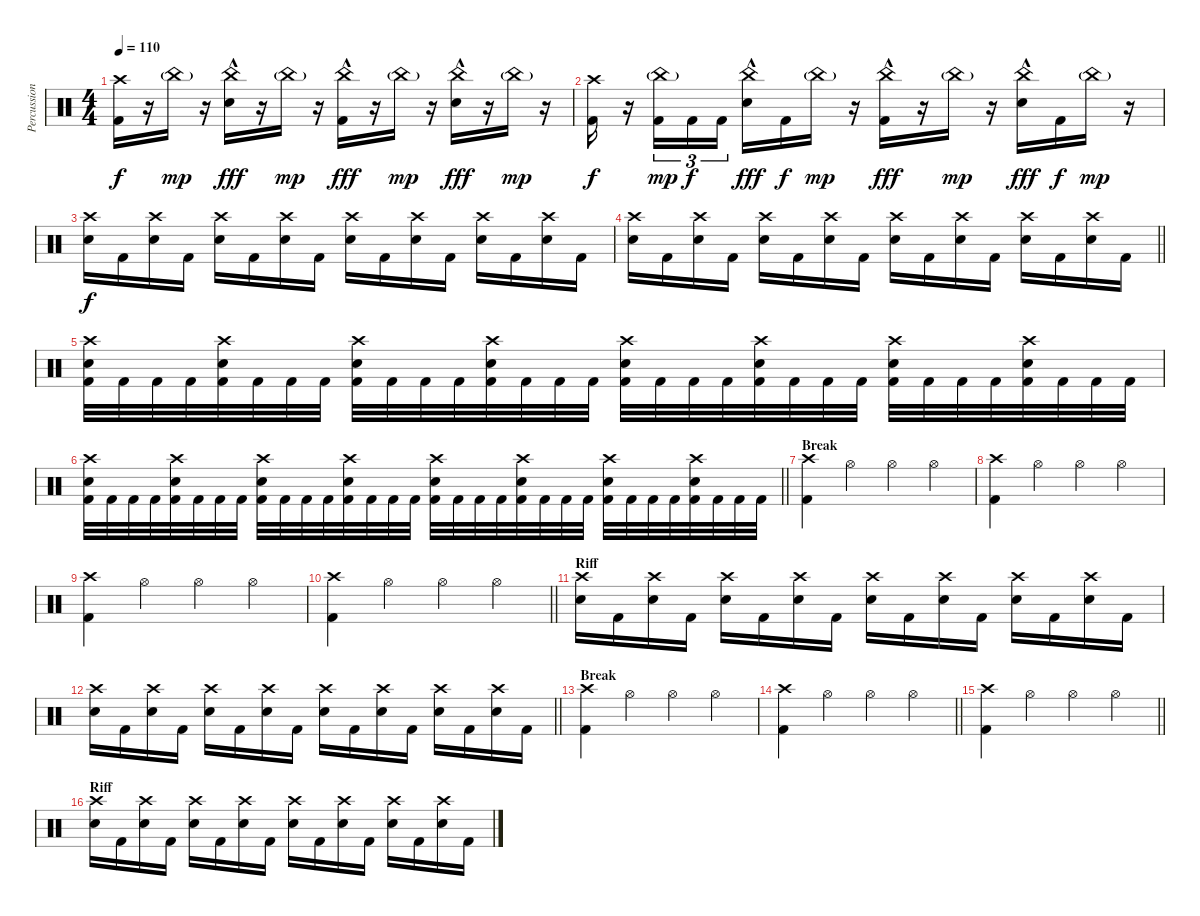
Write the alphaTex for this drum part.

\track ("Percussion" "Percussion") {instrument percussion}
\staff {score}
\articulation defaults
\ts (4 4)
\tempo 110
\clef neutral
\ks c
("Crash high (hit)" "Kick (hit) 2").16{dy f} r.16 "China (hit)"{g}.16{dy mp} r.16 ("China (hit)"{hac} "Snare (hit) 2").16{dy fff} r.16 "China (hit)"{g}.16{dy mp} r.16 ("China (hit)"{hac} "Kick (hit) 2").16{dy fff} r.16 "China (hit)"{g}.16{dy mp} r.16 ("China (hit)"{hac} "Snare (hit) 2").16{dy fff} r.16 "China (hit)"{g}.16{dy mp} r.16 |
("Crash high (hit)" "Kick (hit) 2").16{dy f} r.16 ("China (hit)"{g} "Kick (hit) 2").16{tu (3 2) dy mp} "Kick (hit) 2".16{tu (3 2) dy f} "Kick (hit) 2".16{tu (3 2)} ("China (hit)"{hac} "Snare (hit) 2").16{dy fff} "Kick (hit) 2".16{dy f} "China (hit)"{g}.16{dy mp} r.16 ("China (hit)"{hac} "Kick (hit) 2").16{dy fff} r.16 "China (hit)"{g}.16{dy mp} r.16 ("China (hit)"{hac} "Snare (hit) 2").16{dy fff} "Kick (hit) 2".16{dy f} "China (hit)"{g}.16{dy mp} r.16 |
("Crash high (hit)" "Snare (hit) 2").16{dy f} "Kick (hit) 2".16 ("Crash high (hit)" "Snare (hit) 2").16 "Kick (hit) 2".16 ("Crash high (hit)" "Snare (hit) 2").16 "Kick (hit) 2".16 ("Crash high (hit)" "Snare (hit) 2").16 "Kick (hit) 2".16 ("Crash high (hit)" "Snare (hit) 2").16 "Kick (hit) 2".16 ("Crash high (hit)" "Snare (hit) 2").16 "Kick (hit) 2".16 ("Crash high (hit)" "Snare (hit) 2").16 "Kick (hit) 2".16 ("Crash high (hit)" "Snare (hit) 2").16 "Kick (hit) 2".16 |
\barLineRight lightlight
("Crash high (hit)" "Snare (hit) 2").16 "Kick (hit) 2".16 ("Crash high (hit)" "Snare (hit) 2").16 "Kick (hit) 2".16 ("Crash high (hit)" "Snare (hit) 2").16 "Kick (hit) 2".16 ("Crash high (hit)" "Snare (hit) 2").16 "Kick (hit) 2".16 ("Crash high (hit)" "Snare (hit) 2").16 "Kick (hit) 2".16 ("Crash high (hit)" "Snare (hit) 2").16 "Kick (hit) 2".16 ("Crash high (hit)" "Snare (hit) 2").16 "Kick (hit) 2".16 ("Crash high (hit)" "Snare (hit) 2").16 "Kick (hit) 2".16 |
("Crash high (hit)" "Snare (hit) 2" "Kick (hit) 2").32 "Kick (hit) 2".32 "Kick (hit) 2".32 "Kick (hit) 2".32 ("Crash high (hit)" "Snare (hit) 2" "Kick (hit) 2").32 "Kick (hit) 2".32 "Kick (hit) 2".32 "Kick (hit) 2".32 ("Crash high (hit)" "Snare (hit) 2" "Kick (hit) 2").32 "Kick (hit) 2".32 "Kick (hit) 2".32 "Kick (hit) 2".32 ("Crash high (hit)" "Snare (hit) 2" "Kick (hit) 2").32 "Kick (hit) 2".32 "Kick (hit) 2".32 "Kick (hit) 2".32 ("Crash high (hit)" "Snare (hit) 2" "Kick (hit) 2").32 "Kick (hit) 2".32 "Kick (hit) 2".32 "Kick (hit) 2".32 ("Crash high (hit)" "Snare (hit) 2" "Kick (hit) 2").32 "Kick (hit) 2".32 "Kick (hit) 2".32 "Kick (hit) 2".32 ("Crash high (hit)" "Snare (hit) 2" "Kick (hit) 2").32 "Kick (hit) 2".32 "Kick (hit) 2".32 "Kick (hit) 2".32 ("Crash high (hit)" "Snare (hit) 2" "Kick (hit) 2").32 "Kick (hit) 2".32 "Kick (hit) 2".32 "Kick (hit) 2".32 |
\barLineRight lightlight
("Crash high (hit)" "Snare (hit) 2" "Kick (hit) 2").32 "Kick (hit) 2".32 "Kick (hit) 2".32 "Kick (hit) 2".32 ("Crash high (hit)" "Snare (hit) 2" "Kick (hit) 2").32 "Kick (hit) 2".32 "Kick (hit) 2".32 "Kick (hit) 2".32 ("Crash high (hit)" "Snare (hit) 2" "Kick (hit) 2").32 "Kick (hit) 2".32 "Kick (hit) 2".32 "Kick (hit) 2".32 ("Crash high (hit)" "Snare (hit) 2" "Kick (hit) 2").32 "Kick (hit) 2".32 "Kick (hit) 2".32 "Kick (hit) 2".32 ("Crash high (hit)" "Snare (hit) 2" "Kick (hit) 2").32 "Kick (hit) 2".32 "Kick (hit) 2".32 "Kick (hit) 2".32 ("Crash high (hit)" "Snare (hit) 2" "Kick (hit) 2").32 "Kick (hit) 2".32 "Kick (hit) 2".32 "Kick (hit) 2".32 ("Crash high (hit)" "Snare (hit) 2" "Kick (hit) 2").32 "Kick (hit) 2".32 "Kick (hit) 2".32 "Kick (hit) 2".32 ("Crash high (hit)" "Snare (hit) 2" "Kick (hit) 2").32 "Kick (hit) 2".32 "Kick (hit) 2".32 "Kick (hit) 2".32 |
\section ("" "Break")
("Crash high (hit)" "Kick (hit) 2").4 "Hi-Hat (open)".4 "Hi-Hat (open)".4 "Hi-Hat (open)".4 |
("Crash high (hit)" "Kick (hit) 2").4 "Hi-Hat (open)".4 "Hi-Hat (open)".4 "Hi-Hat (open)".4 |
("Crash high (hit)" "Kick (hit) 2").4 "Hi-Hat (open)".4 "Hi-Hat (open)".4 "Hi-Hat (open)".4 |
\barLineRight lightlight
("Crash high (hit)" "Kick (hit) 2").4 "Hi-Hat (open)".4 "Hi-Hat (open)".4 "Hi-Hat (open)".4 |
\section ("" "Riff")
("Crash high (hit)" "Snare (hit) 2").16 "Kick (hit) 2".16 ("Crash high (hit)" "Snare (hit) 2").16 "Kick (hit) 2".16 ("Crash high (hit)" "Snare (hit) 2").16 "Kick (hit) 2".16 ("Crash high (hit)" "Snare (hit) 2").16 "Kick (hit) 2".16 ("Crash high (hit)" "Snare (hit) 2").16 "Kick (hit) 2".16 ("Crash high (hit)" "Snare (hit) 2").16 "Kick (hit) 2".16 ("Crash high (hit)" "Snare (hit) 2").16 "Kick (hit) 2".16 ("Crash high (hit)" "Snare (hit) 2").16 "Kick (hit) 2".16 |
\barLineRight lightlight
("Crash high (hit)" "Snare (hit) 2").16 "Kick (hit) 2".16 ("Crash high (hit)" "Snare (hit) 2").16 "Kick (hit) 2".16 ("Crash high (hit)" "Snare (hit) 2").16 "Kick (hit) 2".16 ("Crash high (hit)" "Snare (hit) 2").16 "Kick (hit) 2".16 ("Crash high (hit)" "Snare (hit) 2").16 "Kick (hit) 2".16 ("Crash high (hit)" "Snare (hit) 2").16 "Kick (hit) 2".16 ("Crash high (hit)" "Snare (hit) 2").16 "Kick (hit) 2".16 ("Crash high (hit)" "Snare (hit) 2").16 "Kick (hit) 2".16 |
\section ("" "Break")
("Crash high (hit)" "Kick (hit) 2").4 "Hi-Hat (open)".4 "Hi-Hat (open)".4 "Hi-Hat (open)".4 |
\barLineRight lightlight
("Crash high (hit)" "Kick (hit) 2").4 "Hi-Hat (open)".4 "Hi-Hat (open)".4 "Hi-Hat (open)".4 |
\barLineRight lightlight
("Crash high (hit)" "Kick (hit) 2").4 "Hi-Hat (open)".4 "Hi-Hat (open)".4 "Hi-Hat (open)".4 |
\section ("" "Riff")
("Crash high (hit)" "Snare (hit) 2").16 "Kick (hit) 2".16 ("Crash high (hit)" "Snare (hit) 2").16 "Kick (hit) 2".16 ("Crash high (hit)" "Snare (hit) 2").16 "Kick (hit) 2".16 ("Crash high (hit)" "Snare (hit) 2").16 "Kick (hit) 2".16 ("Crash high (hit)" "Snare (hit) 2").16 "Kick (hit) 2".16 ("Crash high (hit)" "Snare (hit) 2").16 "Kick (hit) 2".16 ("Crash high (hit)" "Snare (hit) 2").16 "Kick (hit) 2".16 ("Crash high (hit)" "Snare (hit) 2").16 "Kick (hit) 2".16
